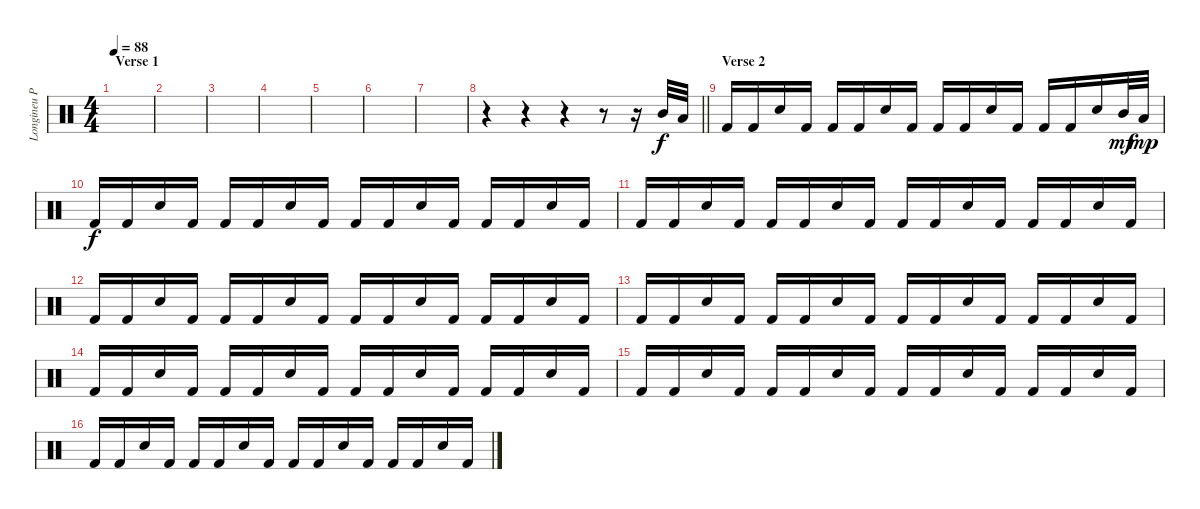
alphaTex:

\track ("Longineu Parsons ||| (Drums)" "Longineu P") {instrument percussion}
\staff {score}
\articulation defaults
\ts (4 4)
\section ("" "Verse 1")
\tempo 88
\clef neutral
\ks c
|
|
|
|
|
|
|
\barLineRight lightlight
r.4 r.4 r.4 r.8 r.16 "Mid Tom (hit)".32 "Low Tom (hit)".32 |
\section ("" "Verse 2")
"Kick (hit) 2".16{dy f} "Kick (hit) 2".16 "Electric Snare (hit)".16 "Kick (hit) 2".16 "Kick (hit) 2".16 "Kick (hit) 2".16 "Electric Snare (hit)".16 "Kick (hit) 2".16 "Kick (hit) 2".16 "Kick (hit) 2".16 "Electric Snare (hit)".16 "Kick (hit) 2".16 "Kick (hit) 2".16 "Kick (hit) 2".16 "Electric Snare (hit)".16 "Mid Tom (hit)".32{dy mf} "Low Tom (hit)".32{dy mp} |
"Kick (hit) 2".16{dy f} "Kick (hit) 2".16 "Electric Snare (hit)".16 "Kick (hit) 2".16 "Kick (hit) 2".16 "Kick (hit) 2".16 "Electric Snare (hit)".16 "Kick (hit) 2".16 "Kick (hit) 2".16 "Kick (hit) 2".16 "Electric Snare (hit)".16 "Kick (hit) 2".16 "Kick (hit) 2".16 "Kick (hit) 2".16 "Electric Snare (hit)".16 "Kick (hit) 2".16 |
"Kick (hit) 2".16 "Kick (hit) 2".16 "Electric Snare (hit)".16 "Kick (hit) 2".16 "Kick (hit) 2".16 "Kick (hit) 2".16 "Electric Snare (hit)".16 "Kick (hit) 2".16 "Kick (hit) 2".16 "Kick (hit) 2".16 "Electric Snare (hit)".16 "Kick (hit) 2".16 "Kick (hit) 2".16 "Kick (hit) 2".16 "Electric Snare (hit)".16 "Kick (hit) 2".16 |
"Kick (hit) 2".16 "Kick (hit) 2".16 "Electric Snare (hit)".16 "Kick (hit) 2".16 "Kick (hit) 2".16 "Kick (hit) 2".16 "Electric Snare (hit)".16 "Kick (hit) 2".16 "Kick (hit) 2".16 "Kick (hit) 2".16 "Electric Snare (hit)".16 "Kick (hit) 2".16 "Kick (hit) 2".16 "Kick (hit) 2".16 "Electric Snare (hit)".16 "Kick (hit) 2".16 |
"Kick (hit) 2".16 "Kick (hit) 2".16 "Electric Snare (hit)".16 "Kick (hit) 2".16 "Kick (hit) 2".16 "Kick (hit) 2".16 "Electric Snare (hit)".16 "Kick (hit) 2".16 "Kick (hit) 2".16 "Kick (hit) 2".16 "Electric Snare (hit)".16 "Kick (hit) 2".16 "Kick (hit) 2".16 "Kick (hit) 2".16 "Electric Snare (hit)".16 "Kick (hit) 2".16 |
"Kick (hit) 2".16 "Kick (hit) 2".16 "Electric Snare (hit)".16 "Kick (hit) 2".16 "Kick (hit) 2".16 "Kick (hit) 2".16 "Electric Snare (hit)".16 "Kick (hit) 2".16 "Kick (hit) 2".16 "Kick (hit) 2".16 "Electric Snare (hit)".16 "Kick (hit) 2".16 "Kick (hit) 2".16 "Kick (hit) 2".16 "Electric Snare (hit)".16 "Kick (hit) 2".16 |
"Kick (hit) 2".16 "Kick (hit) 2".16 "Electric Snare (hit)".16 "Kick (hit) 2".16 "Kick (hit) 2".16 "Kick (hit) 2".16 "Electric Snare (hit)".16 "Kick (hit) 2".16 "Kick (hit) 2".16 "Kick (hit) 2".16 "Electric Snare (hit)".16 "Kick (hit) 2".16 "Kick (hit) 2".16 "Kick (hit) 2".16 "Electric Snare (hit)".16 "Kick (hit) 2".16 |
"Kick (hit) 2".16 "Kick (hit) 2".16 "Electric Snare (hit)".16 "Kick (hit) 2".16 "Kick (hit) 2".16 "Kick (hit) 2".16 "Electric Snare (hit)".16 "Kick (hit) 2".16 "Kick (hit) 2".16 "Kick (hit) 2".16 "Electric Snare (hit)".16 "Kick (hit) 2".16 "Kick (hit) 2".16 "Kick (hit) 2".16 "Electric Snare (hit)".16 "Kick (hit) 2".16
